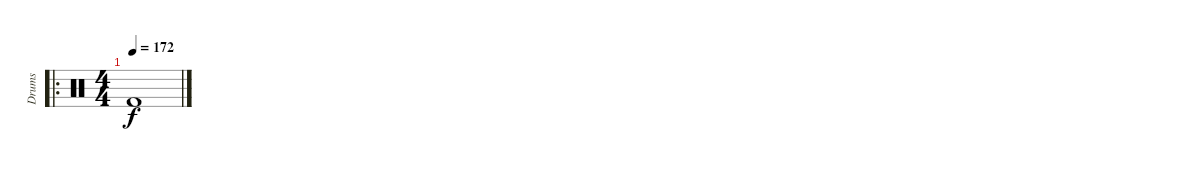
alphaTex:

\track ("Drums" "Drums") {instrument percussion}
\staff {score}
\articulation defaults
\ro
\ts (4 4)
\tempo 172
\clef neutral
\ks c "Kick (hit) 2".1{dy f}
